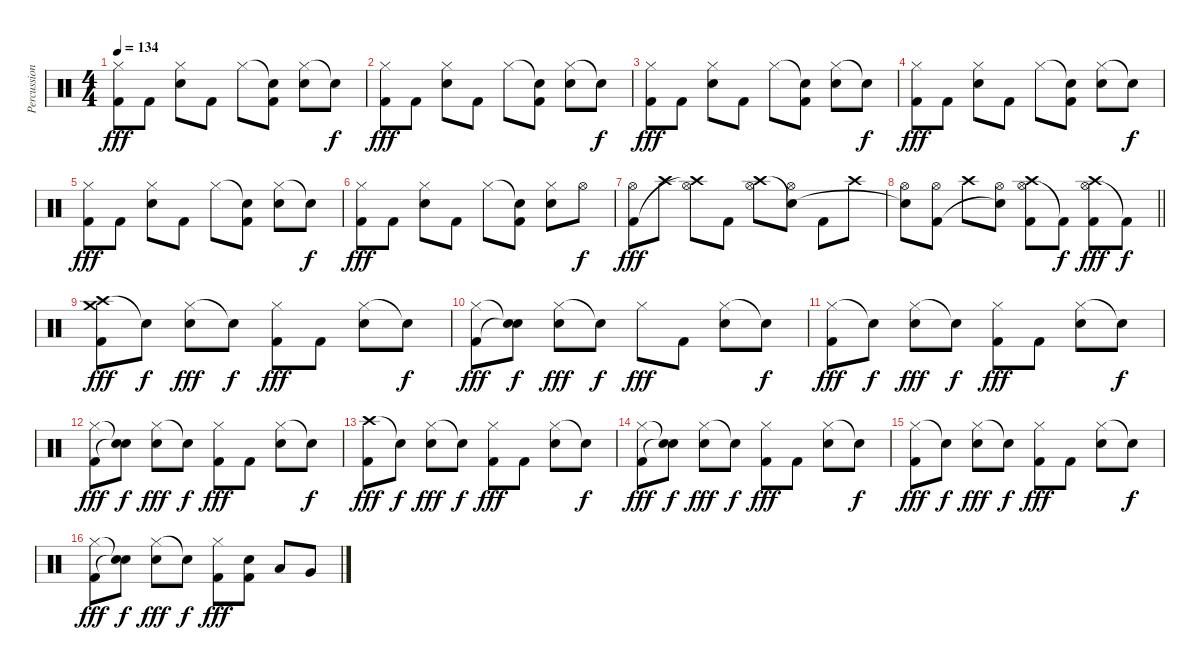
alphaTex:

\track ("Percussion" "Percussion") {instrument percussion}
\staff {score}
\articulation defaults
\ts (4 4)
\tempo 134
\clef neutral
\ks c
("Hi-Hat (closed)" "Kick (hit) 2").8{dy fff} "Kick (hit) 2".8 ("Hi-Hat (closed)" "Snare (hit) 2").8 "Kick (hit) 2".8 "Hi-Hat (closed)".8 ("Snare (hit)"{t} "Kick (hit) 2").8 ("Hi-Hat (closed)" "Snare (hit) 2").8 "Snare (hit)"{t}.8{dy f} |
("Hi-Hat (closed)" "Kick (hit) 2").8{dy fff} "Kick (hit) 2".8 ("Hi-Hat (closed)" "Snare (hit) 2").8 "Kick (hit) 2".8 "Hi-Hat (closed)".8 ("Snare (hit)"{t} "Kick (hit) 2").8 ("Hi-Hat (closed)" "Snare (hit) 2").8 "Snare (hit)"{t}.8{dy f} |
("Hi-Hat (closed)" "Kick (hit) 2").8{dy fff} "Kick (hit) 2".8 ("Hi-Hat (closed)" "Snare (hit) 2").8 "Kick (hit) 2".8 "Hi-Hat (closed)".8 ("Snare (hit)"{t} "Kick (hit) 2").8 ("Hi-Hat (closed)" "Snare (hit) 2").8 "Snare (hit)"{t}.8{dy f} |
("Hi-Hat (closed)" "Kick (hit) 2").8{dy fff} "Kick (hit) 2".8 ("Hi-Hat (closed)" "Snare (hit) 2").8 "Kick (hit) 2".8 "Hi-Hat (closed)".8 ("Snare (hit)"{t} "Kick (hit) 2").8 ("Hi-Hat (closed)" "Snare (hit) 2").8 "Snare (hit)"{t}.8{dy f} |
("Hi-Hat (closed)" "Kick (hit) 2").8{dy fff} "Kick (hit) 2".8 ("Hi-Hat (closed)" "Snare (hit) 2").8 "Kick (hit) 2".8 "Hi-Hat (closed)".8 ("Snare (hit)"{t} "Kick (hit) 2").8 ("Hi-Hat (closed)" "Snare (hit) 2").8 "Snare (hit)"{t}.8{dy f} |
("Hi-Hat (closed)" "Kick (hit) 2").8{dy fff} "Kick (hit) 2".8 ("Hi-Hat (closed)" "Snare (hit) 2").8 "Kick (hit) 2".8 "Hi-Hat (closed)".8 ("Snare (hit)"{t} "Kick (hit) 2").8 ("Hi-Hat (closed)" "Snare (hit) 2").8 "Hi-Hat (open)".8{dy f} |
("Hi-Hat (open)" "Kick (hit) 2").8{dy fff} "Crash high (hit)".8 ("Hi-Hat (open)" "Crash high (hit)"{t}).8 "Kick (hit) 2".8 ("Hi-Hat (open)" "Crash high (hit)").8 ("Hi-Hat (open)" "Snare (hit)"{t}).8 "Kick (hit) 2".8 "Crash high (hit)".8 |
\barLineRight lightlight
("Hi-Hat (open)" "Snare (hit)"{t}).8 ("Hi-Hat (open)" "Kick (hit) 2").8 "Crash high (hit)".8 ("Hi-Hat (open)" "Snare (hit)"{t}).8 ("Hi-Hat (open)" "Crash high (hit)" "Kick (hit) 2").8 "Kick (hit) 2"{t}.8{dy f} ("Hi-Hat (open)" "Crash high (hit)" "Kick (hit) 2").8{dy fff} "Kick (hit) 2"{t}.8{dy f} |
("Crash high (hit)" "Crash medium (hit)" "Kick (hit) 2").8{dy fff} "Snare (hit)"{t}.8{dy f} ("Hi-Hat (closed)" "Snare (hit) 2").8{dy fff} "Snare (hit)"{t}.8{dy f} ("Hi-Hat (closed)" "Kick (hit) 2").8{dy fff} "Kick (hit) 2".8 ("Hi-Hat (closed)" "Snare (hit) 2").8 "Snare (hit)"{t}.8{dy f} |
("Hi-Hat (closed)" "Kick (hit) 2").8{dy fff} ("Snare (hit)"{t} "Snare (hit)"{t}).8{dy f} ("Hi-Hat (closed)" "Snare (hit) 2").8{dy fff} "Snare (hit)"{t}.8{dy f} "Hi-Hat (closed)".8{dy fff} "Kick (hit) 2".8 ("Hi-Hat (closed)" "Snare (hit) 2").8 "Snare (hit)"{t}.8{dy f} |
("Hi-Hat (closed)" "Kick (hit) 2").8{dy fff} "Snare (hit)"{t}.8{dy f} ("Hi-Hat (closed)" "Snare (hit) 2").8{dy fff} "Snare (hit)"{t}.8{dy f} ("Hi-Hat (closed)" "Kick (hit) 2").8{dy fff} "Kick (hit) 2".8 ("Hi-Hat (closed)" "Snare (hit) 2").8 "Snare (hit)"{t}.8{dy f} |
("Hi-Hat (closed)" "Kick (hit) 2").8{dy fff} ("Snare (hit)"{t} "Snare (hit)"{t}).8{dy f} ("Hi-Hat (closed)" "Snare (hit) 2").8{dy fff} "Snare (hit)"{t}.8{dy f} ("Hi-Hat (closed)" "Kick (hit) 2").8{dy fff} "Kick (hit) 2".8 ("Hi-Hat (closed)" "Snare (hit) 2").8 "Snare (hit)"{t}.8{dy f} |
("Crash high (hit)" "Kick (hit) 2").8{dy fff} "Snare (hit)"{t}.8{dy f} ("Hi-Hat (closed)" "Snare (hit) 2").8{dy fff} "Snare (hit)"{t}.8{dy f} ("Hi-Hat (closed)" "Kick (hit) 2").8{dy fff} "Kick (hit) 2".8 ("Hi-Hat (closed)" "Snare (hit) 2").8 "Snare (hit)"{t}.8{dy f} |
("Hi-Hat (closed)" "Kick (hit) 2").8{dy fff} ("Snare (hit)"{t} "Snare (hit)"{t}).8{dy f} ("Hi-Hat (closed)" "Snare (hit) 2").8{dy fff} "Snare (hit)"{t}.8{dy f} ("Hi-Hat (closed)" "Kick (hit) 2").8{dy fff} "Kick (hit) 2".8 ("Hi-Hat (closed)" "Snare (hit) 2").8 "Snare (hit)"{t}.8{dy f} |
("Hi-Hat (closed)" "Kick (hit) 2").8{dy fff} "Snare (hit)"{t}.8{dy f} ("Hi-Hat (closed)" "Snare (hit) 2").8{dy fff} "Snare (hit)"{t}.8{dy f} ("Hi-Hat (closed)" "Kick (hit) 2").8{dy fff} "Kick (hit) 2".8 ("Hi-Hat (closed)" "Snare (hit) 2").8 "Snare (hit)"{t}.8{dy f} |
("Hi-Hat (closed)" "Kick (hit) 2").8{dy fff} ("Snare (hit)"{t} "Snare (hit)"{t}).8{dy f} ("Hi-Hat (closed)" "Snare (hit) 2").8{dy fff} "Snare (hit)"{t}.8{dy f} ("Hi-Hat (closed)" "Kick (hit) 2").8{dy fff} ("Snare (hit) 2" "Kick (hit) 2").8 "Low Tom (hit)".8 "Very Low Tom (hit)".8
